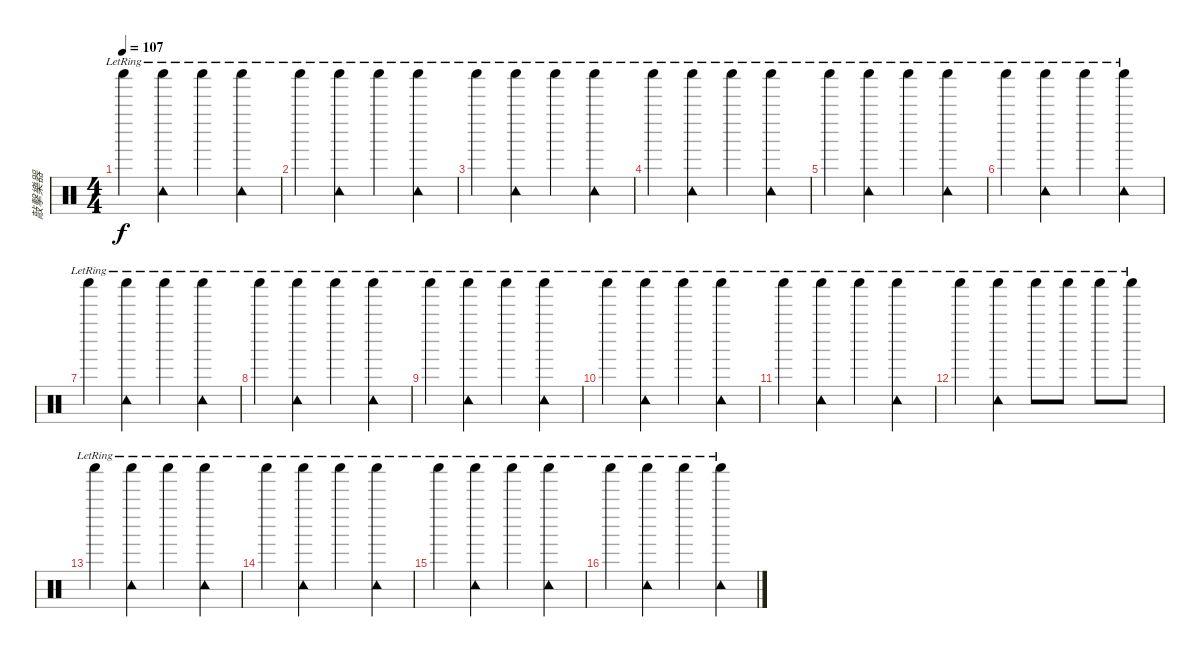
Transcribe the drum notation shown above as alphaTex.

\track ("敲擊樂器" "敲擊樂器") {instrument percussion}
\staff {score}
\articulation defaults
\ts (4 4)
\tempo 107
\clef neutral
\ks c "Shaker (hit)"{lr}.4{dy f}
("Tambourine (hit)"{lr} "Shaker (hit)"{lr}).4 "Shaker (hit)"{lr}.4 ("Tambourine (hit)"{lr} "Shaker (hit)"{lr}).4 |
"Shaker (hit)"{lr}.4 ("Tambourine (hit)"{lr} "Shaker (hit)"{lr}).4 "Shaker (hit)"{lr}.4 ("Tambourine (hit)"{lr} "Shaker (hit)"{lr}).4 |
"Shaker (hit)"{lr}.4 ("Tambourine (hit)"{lr} "Shaker (hit)"{lr}).4 "Shaker (hit)"{lr}.4 ("Tambourine (hit)"{lr} "Shaker (hit)"{lr}).4 |
"Shaker (hit)"{lr}.4 ("Tambourine (hit)"{lr} "Shaker (hit)"{lr}).4 "Shaker (hit)"{lr}.4 ("Tambourine (hit)"{lr} "Shaker (hit)"{lr}).4 |
"Shaker (hit)"{lr}.4 ("Tambourine (hit)"{lr} "Shaker (hit)"{lr}).4 "Shaker (hit)"{lr}.4 ("Tambourine (hit)"{lr} "Shaker (hit)"{lr}).4 |
"Shaker (hit)"{lr}.4 ("Tambourine (hit)"{lr} "Shaker (hit)"{lr}).4 "Shaker (hit)"{lr}.4 ("Tambourine (hit)"{lr} "Shaker (hit)"{lr}).4 |
"Shaker (hit)"{lr}.4 ("Tambourine (hit)"{lr} "Shaker (hit)"{lr}).4 "Shaker (hit)"{lr}.4 ("Tambourine (hit)"{lr} "Shaker (hit)"{lr}).4 |
"Shaker (hit)"{lr}.4 ("Tambourine (hit)"{lr} "Shaker (hit)"{lr}).4 "Shaker (hit)"{lr}.4 ("Tambourine (hit)"{lr} "Shaker (hit)"{lr}).4 |
"Shaker (hit)"{lr}.4 ("Tambourine (hit)"{lr} "Shaker (hit)"{lr}).4 "Shaker (hit)"{lr}.4 ("Tambourine (hit)"{lr} "Shaker (hit)"{lr}).4 |
"Shaker (hit)"{lr}.4 ("Tambourine (hit)"{lr} "Shaker (hit)"{lr}).4 "Shaker (hit)"{lr}.4 ("Tambourine (hit)"{lr} "Shaker (hit)"{lr}).4 |
"Shaker (hit)"{lr}.4 ("Tambourine (hit)"{lr} "Shaker (hit)"{lr}).4 "Shaker (hit)"{lr}.4 ("Tambourine (hit)"{lr} "Shaker (hit)"{lr}).4 |
"Shaker (hit)"{lr}.4 ("Tambourine (hit)"{lr} "Shaker (hit)"{lr}).4 "Shaker (hit)"{lr}.8 "Shaker (hit)"{lr}.8 "Shaker (hit)"{lr}.8 "Shaker (hit)"{lr}.8 |
"Shaker (hit)"{lr}.4 ("Tambourine (hit)"{lr} "Shaker (hit)"{lr}).4 "Shaker (hit)"{lr}.4 ("Tambourine (hit)"{lr} "Shaker (hit)"{lr}).4 |
"Shaker (hit)"{lr}.4 ("Tambourine (hit)"{lr} "Shaker (hit)"{lr}).4 "Shaker (hit)"{lr}.4 ("Tambourine (hit)"{lr} "Shaker (hit)"{lr}).4 |
"Shaker (hit)"{lr}.4 ("Tambourine (hit)"{lr} "Shaker (hit)"{lr}).4 "Shaker (hit)"{lr}.4 ("Tambourine (hit)"{lr} "Shaker (hit)"{lr}).4 |
"Shaker (hit)"{lr}.4 ("Tambourine (hit)"{lr} "Shaker (hit)"{lr}).4 "Shaker (hit)"{lr}.4 ("Tambourine (hit)"{lr} "Shaker (hit)"{lr}).4
